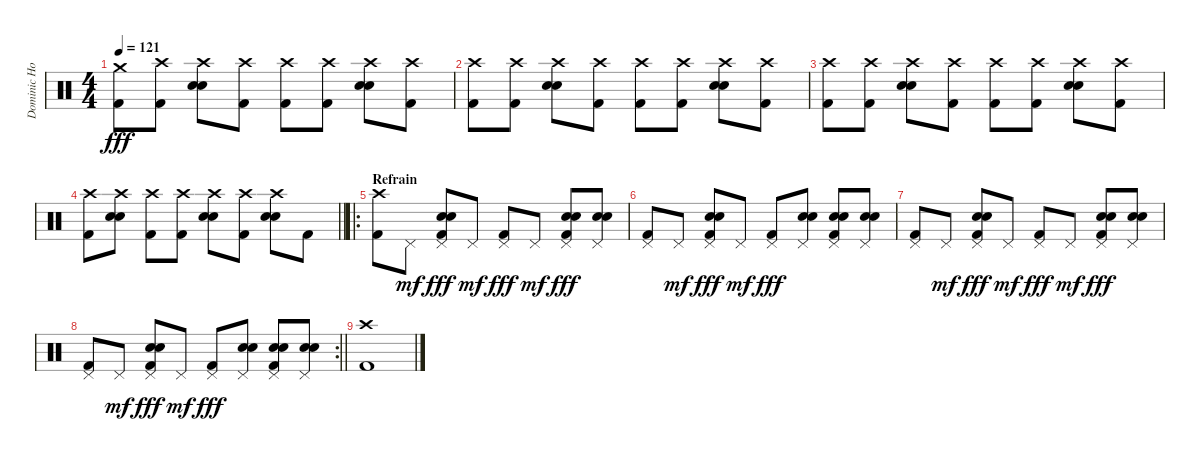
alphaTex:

\track ("Dominic Howard" "Dominic Ho") {instrument percussion}
\staff {score}
\articulation defaults
\ts (4 4)
\tempo 121
\clef neutral
\ks c
("Crash medium (hit)" "Kick (hit) 2").8{dy fff} ("Crash high (hit)" "Kick (hit) 2").8 ("Crash high (hit)" "Snare (hit) 2" "Electric Snare (hit)").8 ("Crash high (hit)" "Kick (hit) 2").8 ("Crash high (hit)" "Kick (hit) 2").8 ("Crash high (hit)" "Kick (hit) 2").8 ("Crash high (hit)" "Snare (hit) 2" "Electric Snare (hit)").8 ("Crash high (hit)" "Kick (hit) 2").8 |
("Crash high (hit)" "Kick (hit) 2").8 ("Crash high (hit)" "Kick (hit) 2").8 ("Crash high (hit)" "Snare (hit) 2" "Electric Snare (hit)").8 ("Crash high (hit)" "Kick (hit) 2").8 ("Crash high (hit)" "Kick (hit) 2").8 ("Crash high (hit)" "Kick (hit) 2").8 ("Crash high (hit)" "Snare (hit) 2" "Electric Snare (hit)").8 ("Crash high (hit)" "Kick (hit) 2").8 |
("Crash high (hit)" "Kick (hit) 2").8 ("Crash high (hit)" "Kick (hit) 2").8 ("Crash high (hit)" "Snare (hit) 2" "Electric Snare (hit)").8 ("Crash high (hit)" "Kick (hit) 2").8 ("Crash high (hit)" "Kick (hit) 2").8 ("Crash high (hit)" "Kick (hit) 2").8 ("Crash high (hit)" "Snare (hit) 2" "Electric Snare (hit)").8 ("Crash high (hit)" "Kick (hit) 2").8 |
\barLineRight lightlight
("Crash high (hit)" "Kick (hit) 2").8 ("Crash high (hit)" "Snare (hit) 2" "Electric Snare (hit)").8 ("Crash high (hit)" "Kick (hit) 2").8 ("Crash high (hit)" "Kick (hit) 2").8 ("Crash high (hit)" "Snare (hit) 2" "Electric Snare (hit)").8 ("Crash high (hit)" "Kick (hit) 2").8 ("Crash high (hit)" "Snare (hit) 2" "Electric Snare (hit)").8 "Kick (hit) 2".8 |
\ro
\section ("" "Refrain")
("Crash high (hit)" "Kick (hit) 2").8 "Pedal Hi-Hat (hit)".8{dy mf} ("Pedal Hi-Hat (hit)" "Hand Clap (hit)" "Electric Snare (hit)" "Kick (hit) 2").8{dy fff} "Pedal Hi-Hat (hit)".8{dy mf} ("Pedal Hi-Hat (hit)" "Kick (hit) 2").8{dy fff} "Pedal Hi-Hat (hit)".8{dy mf} ("Pedal Hi-Hat (hit)" "Hand Clap (hit)" "Electric Snare (hit)" "Kick (hit) 2").8{dy fff} ("Pedal Hi-Hat (hit)" "Hand Clap (hit)" "Electric Snare (hit)").8 |
("Pedal Hi-Hat (hit)" "Kick (hit) 2").8 "Pedal Hi-Hat (hit)".8{dy mf} ("Pedal Hi-Hat (hit)" "Hand Clap (hit)" "Electric Snare (hit)" "Kick (hit) 2").8{dy fff} "Pedal Hi-Hat (hit)".8{dy mf} ("Pedal Hi-Hat (hit)" "Kick (hit) 2").8{dy fff} ("Pedal Hi-Hat (hit)" "Hand Clap (hit)" "Electric Snare (hit)").8 ("Pedal Hi-Hat (hit)" "Hand Clap (hit)" "Electric Snare (hit)" "Kick (hit) 2").8 ("Pedal Hi-Hat (hit)" "Hand Clap (hit)" "Electric Snare (hit)").8 |
("Pedal Hi-Hat (hit)" "Kick (hit) 2").8 "Pedal Hi-Hat (hit)".8{dy mf} ("Pedal Hi-Hat (hit)" "Hand Clap (hit)" "Electric Snare (hit)" "Kick (hit) 2").8{dy fff} "Pedal Hi-Hat (hit)".8{dy mf} ("Pedal Hi-Hat (hit)" "Kick (hit) 2").8{dy fff} "Pedal Hi-Hat (hit)".8{dy mf} ("Pedal Hi-Hat (hit)" "Hand Clap (hit)" "Electric Snare (hit)" "Kick (hit) 2").8{dy fff} ("Pedal Hi-Hat (hit)" "Hand Clap (hit)" "Electric Snare (hit)").8 |
\rc 2
\barLineRight lightlight
("Pedal Hi-Hat (hit)" "Kick (hit) 2").8 "Pedal Hi-Hat (hit)".8{dy mf} ("Pedal Hi-Hat (hit)" "Hand Clap (hit)" "Electric Snare (hit)" "Kick (hit) 2").8{dy fff} "Pedal Hi-Hat (hit)".8{dy mf} ("Pedal Hi-Hat (hit)" "Kick (hit) 2").8{dy fff} ("Pedal Hi-Hat (hit)" "Hand Clap (hit)" "Electric Snare (hit)").8 ("Pedal Hi-Hat (hit)" "Hand Clap (hit)" "Electric Snare (hit)" "Kick (hit) 2").8 ("Pedal Hi-Hat (hit)" "Hand Clap (hit)" "Electric Snare (hit)").8 |
("Crash high (hit)" "Kick (hit) 2").1
